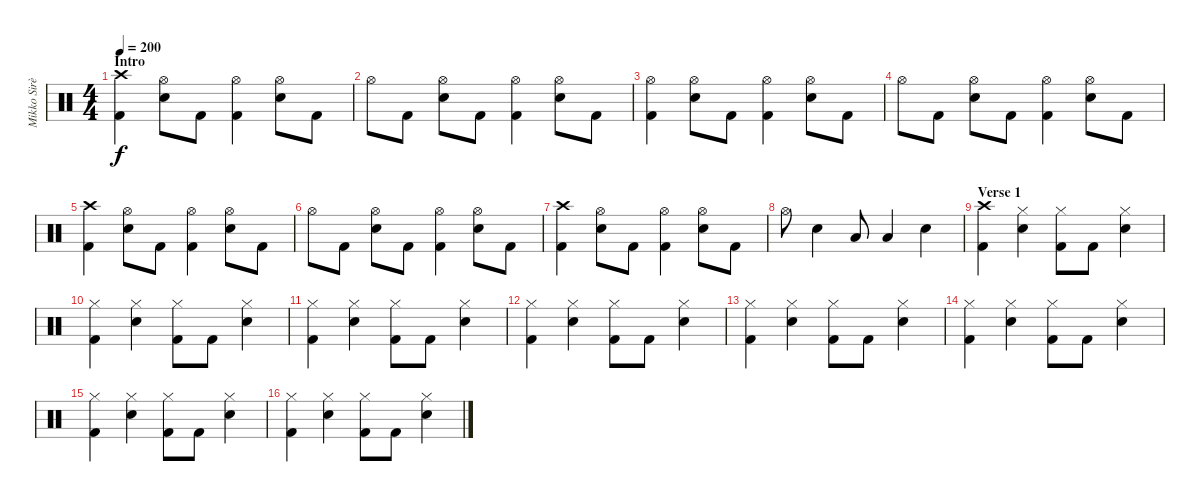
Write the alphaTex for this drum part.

\track ("Mikko Sirèn" "Mikko Sirè") {instrument percussion}
\staff {score}
\articulation defaults
\ts (4 4)
\section ("" "Intro")
\tempo 200
\clef neutral
\ks c
("Crash high (hit)" "Kick (hit) 2").4{dy f} ("Hi-Hat (open)" "Electric Snare (hit)").8 "Kick (hit) 2".8 ("Hi-Hat (open)" "Kick (hit) 2").4 ("Hi-Hat (open)" "Electric Snare (hit)").8 "Kick (hit) 2".8 |
"Hi-Hat (open)".8 "Kick (hit) 2".8 ("Hi-Hat (open)" "Electric Snare (hit)").8 "Kick (hit) 2".8 ("Hi-Hat (open)" "Kick (hit) 2").4 ("Hi-Hat (open)" "Electric Snare (hit)").8 "Kick (hit) 2".8 |
("Hi-Hat (open)" "Kick (hit) 2").4 ("Hi-Hat (open)" "Electric Snare (hit)").8 "Kick (hit) 2".8 ("Hi-Hat (open)" "Kick (hit) 2").4 ("Hi-Hat (open)" "Electric Snare (hit)").8 "Kick (hit) 2".8 |
"Hi-Hat (open)".8 "Kick (hit) 2".8 ("Hi-Hat (open)" "Electric Snare (hit)").8 "Kick (hit) 2".8 ("Hi-Hat (open)" "Kick (hit) 2").4 ("Hi-Hat (open)" "Electric Snare (hit)").8 "Kick (hit) 2".8 |
("Crash high (hit)" "Kick (hit) 2").4 ("Hi-Hat (open)" "Electric Snare (hit)").8 "Kick (hit) 2".8 ("Hi-Hat (open)" "Kick (hit) 2").4 ("Hi-Hat (open)" "Electric Snare (hit)").8 "Kick (hit) 2".8 |
"Hi-Hat (open)".8 "Kick (hit) 2".8 ("Hi-Hat (open)" "Electric Snare (hit)").8 "Kick (hit) 2".8 ("Hi-Hat (open)" "Kick (hit) 2").4 ("Hi-Hat (open)" "Electric Snare (hit)").8 "Kick (hit) 2".8 |
("Crash high (hit)" "Kick (hit) 2").4 ("Hi-Hat (open)" "Electric Snare (hit)").8 "Kick (hit) 2".8 ("Hi-Hat (open)" "Kick (hit) 2").4 ("Hi-Hat (open)" "Electric Snare (hit)").8 "Kick (hit) 2".8 |
"Hi-Hat (open)".8 "Electric Snare (hit)".4 "Low Tom (hit)".8 "Low Tom (hit)".4 "Electric Snare (hit)".4 |
\section ("" "Verse 1")
("Crash high (hit)" "Kick (hit) 2").4 ("Hi-Hat (closed)" "Electric Snare (hit)").4 ("Hi-Hat (closed)" "Kick (hit) 2").8 "Kick (hit) 2".8 ("Hi-Hat (closed)" "Electric Snare (hit)").4 |
("Hi-Hat (closed)" "Kick (hit) 2").4 ("Hi-Hat (closed)" "Electric Snare (hit)").4 ("Hi-Hat (closed)" "Kick (hit) 2").8 "Kick (hit) 2".8 ("Hi-Hat (closed)" "Electric Snare (hit)").4 |
("Hi-Hat (closed)" "Kick (hit) 2").4 ("Hi-Hat (closed)" "Electric Snare (hit)").4 ("Hi-Hat (closed)" "Kick (hit) 2").8 "Kick (hit) 2".8 ("Hi-Hat (closed)" "Electric Snare (hit)").4 |
("Hi-Hat (closed)" "Kick (hit) 2").4 ("Hi-Hat (closed)" "Electric Snare (hit)").4 ("Hi-Hat (closed)" "Kick (hit) 2").8 "Kick (hit) 2".8 ("Hi-Hat (closed)" "Electric Snare (hit)").4 |
("Hi-Hat (closed)" "Kick (hit) 2").4 ("Hi-Hat (closed)" "Electric Snare (hit)").4 ("Hi-Hat (closed)" "Kick (hit) 2").8 "Kick (hit) 2".8 ("Hi-Hat (closed)" "Electric Snare (hit)").4 |
("Hi-Hat (closed)" "Kick (hit) 2").4 ("Hi-Hat (closed)" "Electric Snare (hit)").4 ("Hi-Hat (closed)" "Kick (hit) 2").8 "Kick (hit) 2".8 ("Hi-Hat (closed)" "Electric Snare (hit)").4 |
("Hi-Hat (closed)" "Kick (hit) 2").4 ("Hi-Hat (closed)" "Electric Snare (hit)").4 ("Hi-Hat (closed)" "Kick (hit) 2").8 "Kick (hit) 2".8 ("Hi-Hat (closed)" "Electric Snare (hit)").4 |
("Hi-Hat (closed)" "Kick (hit) 2").4 ("Hi-Hat (closed)" "Electric Snare (hit)").4 ("Hi-Hat (closed)" "Kick (hit) 2").8 "Kick (hit) 2".8 ("Hi-Hat (closed)" "Electric Snare (hit)").4
